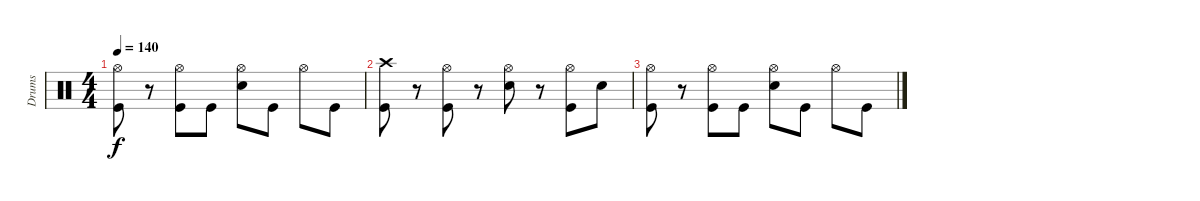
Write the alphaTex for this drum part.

\track ("Drums" "Drums") {instrument percussion}
\staff {score}
\articulation defaults
\ts (4 4)
\tempo 140
\clef neutral
\ks c
("Hi-Hat (open)" "Kick (hit)").8{dy f} r.8 ("Hi-Hat (open)" "Kick (hit)").8 "Kick (hit)".8 ("Hi-Hat (open)" "Snare (hit) 2").8 "Kick (hit)".8 "Hi-Hat (open)".8 "Kick (hit)".8 |
("Crash high (hit)" "Kick (hit)").8 r.8 ("Hi-Hat (open)" "Kick (hit)").8 r.8 ("Hi-Hat (open)" "Snare (hit) 2").8 r.8 ("Hi-Hat (open)" "Kick (hit)").8 "Snare (hit) 2".8 |
("Hi-Hat (open)" "Kick (hit)").8 r.8 ("Hi-Hat (open)" "Kick (hit)").8 "Kick (hit)".8 ("Hi-Hat (open)" "Snare (hit) 2").8 "Kick (hit)".8 "Hi-Hat (open)".8 "Kick (hit)".8
